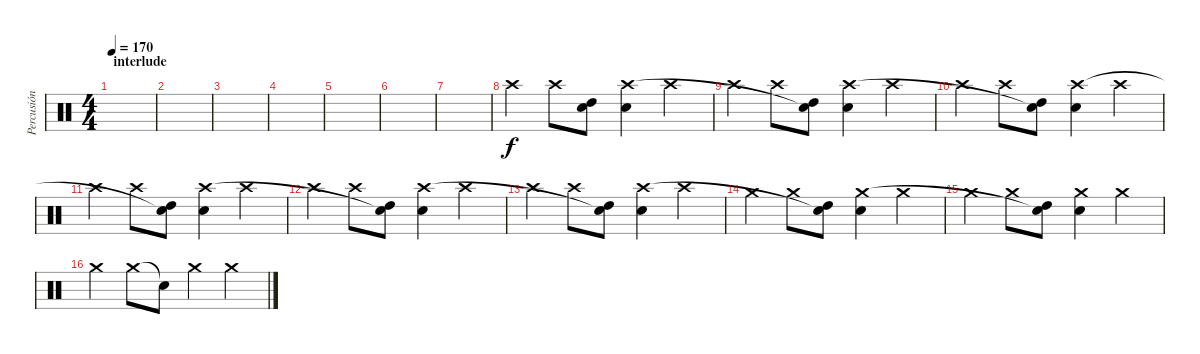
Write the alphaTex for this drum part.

\track ("Percusión" "Percusión") {instrument percussion}
\staff {score}
\articulation defaults
\ts (4 4)
\section ("" "interlude")
\tempo 170
\clef neutral
\ks c
|
|
|
|
|
|
|
"Crash high (hit)".4 "Crash high (hit)".8 ("High Tom (hit)" "Snare (hit)").8 ("Electric Snare (hit)" "Crash high (hit)").4 "Crash high (hit)".4 |
"Crash high (hit)".4 "Crash high (hit)".8 ("High Tom (hit)" "Snare (hit)"{t}).8 ("Electric Snare (hit)" "Crash high (hit)").4 "Crash high (hit)".4 |
"Crash high (hit)".4 "Crash high (hit)".8 ("High Tom (hit)" "Snare (hit)"{t}).8 ("Electric Snare (hit)" "Crash high (hit)").4 "Crash high (hit)".4 |
"Crash high (hit)".4 "Crash high (hit)".8 ("High Tom (hit)" "Snare (hit)"{t}).8 ("Electric Snare (hit)" "Crash high (hit)").4 "Crash high (hit)".4 |
"Crash high (hit)".4 "Crash high (hit)".8 ("High Tom (hit)" "Snare (hit)"{t}).8 ("Electric Snare (hit)" "Crash high (hit)").4 "Crash high (hit)".4 |
"Crash high (hit)".4 "Crash high (hit)".8 ("High Tom (hit)" "Snare (hit)"{t}).8 ("Electric Snare (hit)" "Crash high (hit)").4 "Crash high (hit)".4 |
"Crash medium (hit)".4 "Crash medium (hit)".8 ("High Tom (hit)" "Snare (hit)"{t}).8 ("Electric Snare (hit)" "Crash medium (hit)").4 "Crash medium (hit)".4 |
"Crash medium (hit)".4 "Crash medium (hit)".8 ("High Tom (hit)" "Snare (hit)"{t}).8 ("Electric Snare (hit)" "Crash medium (hit)").4 "Crash medium (hit)".4 |
"Crash medium (hit)".4 "Crash medium (hit)".8 "Snare (hit)"{t}.8 "Crash medium (hit)".4 "Crash medium (hit)".4
